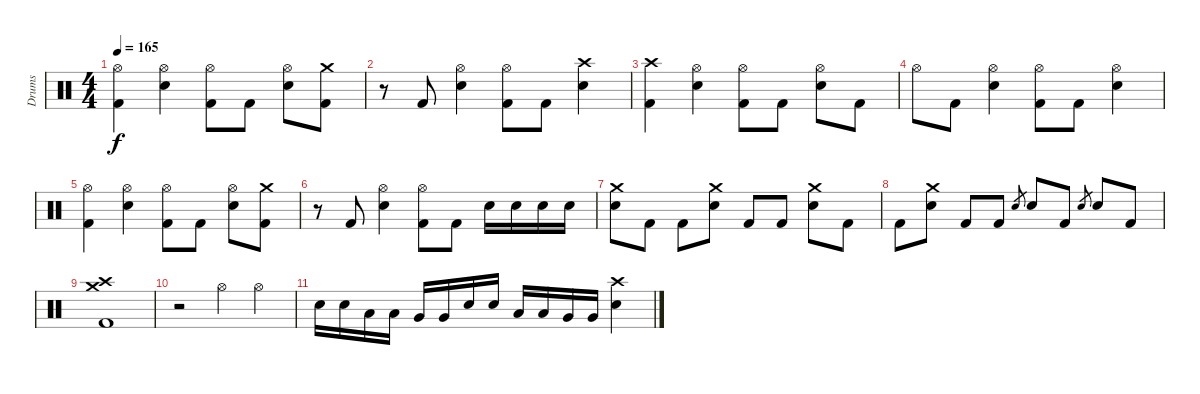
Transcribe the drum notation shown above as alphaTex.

\track ("Drums" "Drums") {instrument percussion}
\staff {score}
\articulation defaults
\ts (4 4)
\tempo 165
\clef neutral
\ks c
("Hi-Hat (open)" "Kick (hit) 2").4{dy f} ("Hi-Hat (open)" "Electric Snare (hit)").4 ("Hi-Hat (open)" "Kick (hit) 2").8 "Kick (hit) 2".8 ("Hi-Hat (open)" "Electric Snare (hit)").8 ("Crash medium (hit)" "Kick (hit) 2").8 |
r.8 "Kick (hit) 2".8 ("Hi-Hat (open)" "Electric Snare (hit)").4 ("Hi-Hat (open)" "Kick (hit) 2").8 "Kick (hit) 2".8 ("Crash high (hit)" "Electric Snare (hit)").4 |
("Crash high (hit)" "Kick (hit) 2").4 ("Hi-Hat (open)" "Electric Snare (hit)").4 ("Hi-Hat (open)" "Kick (hit) 2").8 "Kick (hit) 2".8 ("Hi-Hat (open)" "Electric Snare (hit)").8 "Kick (hit) 2".8 |
"Hi-Hat (open)".8 "Kick (hit) 2".8 ("Hi-Hat (open)" "Electric Snare (hit)").4 ("Hi-Hat (open)" "Kick (hit) 2").8 "Kick (hit) 2".8 ("Hi-Hat (open)" "Electric Snare (hit)").4 |
("Hi-Hat (open)" "Kick (hit) 2").4 ("Hi-Hat (open)" "Electric Snare (hit)").4 ("Hi-Hat (open)" "Kick (hit) 2").8 "Kick (hit) 2".8 ("Hi-Hat (open)" "Electric Snare (hit)").8 ("Crash medium (hit)" "Kick (hit) 2").8 |
r.8 "Kick (hit) 2".8 ("Hi-Hat (open)" "Electric Snare (hit)").4 ("Hi-Hat (open)" "Kick (hit) 2").8 "Kick (hit) 2".8 "Electric Snare (hit)".16 "Electric Snare (hit)".16 "Electric Snare (hit)".16 "Electric Snare (hit)".16 |
("Crash medium (hit)" "Electric Snare (hit)").8 "Kick (hit) 2".8 "Kick (hit) 2".8 ("Crash medium (hit)" "Electric Snare (hit)").8 "Kick (hit) 2".8 "Kick (hit) 2".8 ("Crash medium (hit)" "Electric Snare (hit)").8 "Kick (hit) 2".8 |
"Kick (hit) 2".8 ("Crash medium (hit)" "Electric Snare (hit)").8 "Kick (hit) 2".8 "Kick (hit) 2".8 "Electric Snare (hit)".8{gr} "Electric Snare (hit)".8 "Kick (hit) 2".8 "Electric Snare (hit)".8{gr} "Electric Snare (hit)".8 "Kick (hit) 2".8 |
("Crash high (hit)" "Crash medium (hit)" "Kick (hit) 2").1 |
r.2 "Hi-Hat (open)".4 "Hi-Hat (open)".4 |
"Electric Snare (hit)".16 "Electric Snare (hit)".16 "Low Tom (hit)".16 "Low Tom (hit)".16 "Very Low Tom (hit)".16 "Very Low Tom (hit)".16 "Electric Snare (hit)".16 "Electric Snare (hit)".16 "Low Tom (hit)".16 "Low Tom (hit)".16 "Very Low Tom (hit)".16 "Very Low Tom (hit)".16 ("Crash high (hit)" "Electric Snare (hit)").4
